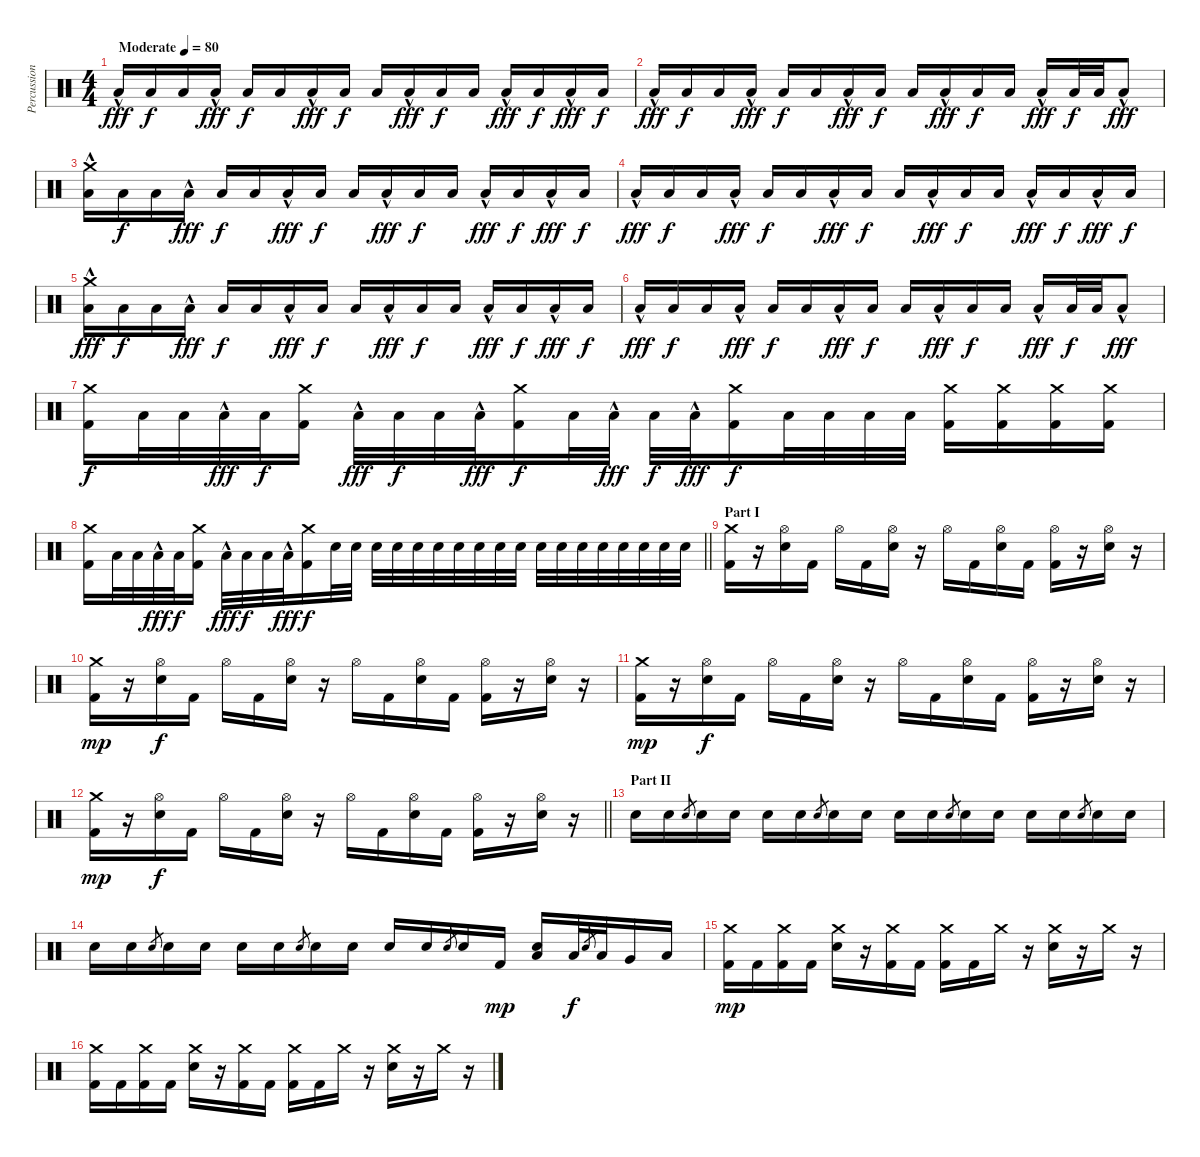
\track ("Percussion" "Percussion") {instrument percussion}
\staff {score}
\articulation defaults
\ts (4 4)
\tempo (80 "Moderate")
\clef neutral
\ks c "Low Floor Tom (hit)"{hac}.16{dy fff volume 13} "Low Floor Tom (hit)".16{dy f} "Low Floor Tom (hit)".16 "Low Floor Tom (hit)"{hac}.16{dy fff} "Low Floor Tom (hit)".16{dy f} "Low Floor Tom (hit)".16 "Low Floor Tom (hit)"{hac}.16{dy fff} "Low Floor Tom (hit)".16{dy f} "Low Floor Tom (hit)".16 "Low Floor Tom (hit)"{hac}.16{dy fff} "Low Floor Tom (hit)".16{dy f} "Low Floor Tom (hit)".16 "Low Floor Tom (hit)"{hac}.16{dy fff} "Low Floor Tom (hit)".16{dy f} "Low Floor Tom (hit)"{hac}.16{dy fff} "Low Floor Tom (hit)".16{dy f}
|
"Low Floor Tom (hit)"{hac}.16{dy fff} "Low Floor Tom (hit)".16{dy f} "Low Floor Tom (hit)".16 "Low Floor Tom (hit)"{hac}.16{dy fff} "Low Floor Tom (hit)".16{dy f} "Low Floor Tom (hit)".16 "Low Floor Tom (hit)"{hac}.16{dy fff} "Low Floor Tom (hit)".16{dy f} "Low Floor Tom (hit)".16 "Low Floor Tom (hit)"{hac}.16{dy fff} "Low Floor Tom (hit)".16{dy f} "Low Floor Tom (hit)".16 "Low Floor Tom (hit)"{hac}.16{dy fff} "Low Floor Tom (hit)".32{dy f} "Low Floor Tom (hit)".32 "Low Floor Tom (hit)"{hac}.8{dy fff} |
("Crash medium (hit)" "Low Floor Tom (hit)"{hac}).16 "Low Floor Tom (hit)".16{dy f} "Low Floor Tom (hit)".16 "Low Floor Tom (hit)"{hac}.16{dy fff} "Low Floor Tom (hit)".16{dy f} "Low Floor Tom (hit)".16 "Low Floor Tom (hit)"{hac}.16{dy fff} "Low Floor Tom (hit)".16{dy f} "Low Floor Tom (hit)".16 "Low Floor Tom (hit)"{hac}.16{dy fff} "Low Floor Tom (hit)".16{dy f} "Low Floor Tom (hit)".16 "Low Floor Tom (hit)"{hac}.16{dy fff} "Low Floor Tom (hit)".16{dy f} "Low Floor Tom (hit)"{hac}.16{dy fff} "Low Floor Tom (hit)".16{dy f} |
"Low Floor Tom (hit)"{hac}.16{dy fff} "Low Floor Tom (hit)".16{dy f} "Low Floor Tom (hit)".16 "Low Floor Tom (hit)"{hac}.16{dy fff} "Low Floor Tom (hit)".16{dy f} "Low Floor Tom (hit)".16 "Low Floor Tom (hit)"{hac}.16{dy fff} "Low Floor Tom (hit)".16{dy f} "Low Floor Tom (hit)".16 "Low Floor Tom (hit)"{hac}.16{dy fff} "Low Floor Tom (hit)".16{dy f} "Low Floor Tom (hit)".16 "Low Floor Tom (hit)"{hac}.16{dy fff} "Low Floor Tom (hit)".16{dy f} "Low Floor Tom (hit)"{hac}.16{dy fff} "Low Floor Tom (hit)".16{dy f} |
("Crash medium (hit)" "Low Floor Tom (hit)"{hac}).16{dy fff} "Low Floor Tom (hit)".16{dy f} "Low Floor Tom (hit)".16 "Low Floor Tom (hit)"{hac}.16{dy fff} "Low Floor Tom (hit)".16{dy f} "Low Floor Tom (hit)".16 "Low Floor Tom (hit)"{hac}.16{dy fff} "Low Floor Tom (hit)".16{dy f} "Low Floor Tom (hit)".16 "Low Floor Tom (hit)"{hac}.16{dy fff} "Low Floor Tom (hit)".16{dy f} "Low Floor Tom (hit)".16 "Low Floor Tom (hit)"{hac}.16{dy fff} "Low Floor Tom (hit)".16{dy f} "Low Floor Tom (hit)"{hac}.16{dy fff} "Low Floor Tom (hit)".16{dy f} |
"Low Floor Tom (hit)"{hac}.16{dy fff} "Low Floor Tom (hit)".16{dy f} "Low Floor Tom (hit)".16 "Low Floor Tom (hit)"{hac}.16{dy fff} "Low Floor Tom (hit)".16{dy f} "Low Floor Tom (hit)".16 "Low Floor Tom (hit)"{hac}.16{dy fff} "Low Floor Tom (hit)".16{dy f} "Low Floor Tom (hit)".16 "Low Floor Tom (hit)"{hac}.16{dy fff} "Low Floor Tom (hit)".16{dy f} "Low Floor Tom (hit)".16 "Low Floor Tom (hit)"{hac}.16{dy fff} "Low Floor Tom (hit)".32{dy f} "Low Floor Tom (hit)".32 "Low Floor Tom (hit)"{hac}.8{dy fff} |
("Crash medium (hit)" "Kick (hit) 2").16{dy f} "Low Floor Tom (hit)".32 "Low Floor Tom (hit)".32 "Low Floor Tom (hit)"{hac}.32{dy fff} "Low Floor Tom (hit)".32{dy f} ("Crash medium (hit)" "Kick (hit) 2").16 "Low Floor Tom (hit)"{hac}.32{dy fff} "Low Floor Tom (hit)".32{dy f} "Low Floor Tom (hit)".32 "Low Floor Tom (hit)"{hac}.32{dy fff} ("Crash medium (hit)" "Kick (hit) 2").16{dy f} "Low Floor Tom (hit)".32 "Low Floor Tom (hit)"{hac}.32{dy fff} "Low Floor Tom (hit)".32{dy f} "Low Floor Tom (hit)"{hac}.32{dy fff} ("Crash medium (hit)" "Kick (hit) 2").16{dy f} "Low Floor Tom (hit)".32 "Low Floor Tom (hit)".32 "Low Floor Tom (hit)".32 "Low Floor Tom (hit)".32 ("Crash medium (hit)" "Kick (hit) 2").16 ("Crash medium (hit)" "Kick (hit) 2").16 ("Crash medium (hit)" "Kick (hit) 2").16 ("Crash medium (hit)" "Kick (hit) 2").16 |
\barLineRight lightlight
("Crash medium (hit)" "Kick (hit) 2").16 "Low Floor Tom (hit)".32 "Low Floor Tom (hit)".32 "Low Floor Tom (hit)"{hac}.32{dy fff} "Low Floor Tom (hit)".32{dy f} ("Crash medium (hit)" "Kick (hit) 2").16 "Low Floor Tom (hit)"{hac}.32{dy fff} "Low Floor Tom (hit)".32{dy f} "Low Floor Tom (hit)".32 "Low Floor Tom (hit)"{hac}.32{dy fff} ("Crash medium (hit)" "Kick (hit) 2").16{dy f} "Electric Snare (hit)".32 "Electric Snare (hit)".32 "Electric Snare (hit)".32 "Electric Snare (hit)".32 "Electric Snare (hit)".32 "Electric Snare (hit)".32 "Electric Snare (hit)".32 "Electric Snare (hit)".32 "Electric Snare (hit)".32 "Electric Snare (hit)".32 "Electric Snare (hit)".32 "Electric Snare (hit)".32 "Electric Snare (hit)".32 "Electric Snare (hit)".32 "Electric Snare (hit)".32 "Electric Snare (hit)".32 "Electric Snare (hit)".32 "Electric Snare (hit)".32 |
\section ("" "Part I")
("Crash medium (hit)" "Kick (hit) 2").16 r.16 ("Hi-Hat (open)" "Electric Snare (hit)").16 "Kick (hit) 2".16 "Hi-Hat (open)".16 "Kick (hit) 2".16 ("Hi-Hat (open)" "Electric Snare (hit)").16 r.16 "Hi-Hat (open)".16 "Kick (hit) 2".16 ("Hi-Hat (open)" "Electric Snare (hit)").16 "Kick (hit) 2".16 ("Hi-Hat (open)" "Kick (hit) 2").16 r.16 ("Hi-Hat (open)" "Electric Snare (hit)").16 r.16 |
("Crash medium (hit)" "Kick (hit) 2").16{dy mp} r.16 ("Hi-Hat (open)" "Electric Snare (hit)").16{dy f} "Kick (hit) 2".16 "Hi-Hat (open)".16 "Kick (hit) 2".16 ("Hi-Hat (open)" "Electric Snare (hit)").16 r.16 "Hi-Hat (open)".16 "Kick (hit) 2".16 ("Hi-Hat (open)" "Electric Snare (hit)").16 "Kick (hit) 2".16 ("Hi-Hat (open)" "Kick (hit) 2").16 r.16 ("Hi-Hat (open)" "Electric Snare (hit)").16 r.16 |
("Crash medium (hit)" "Kick (hit) 2").16{dy mp} r.16 ("Hi-Hat (open)" "Electric Snare (hit)").16{dy f} "Kick (hit) 2".16 "Hi-Hat (open)".16 "Kick (hit) 2".16 ("Hi-Hat (open)" "Electric Snare (hit)").16 r.16 "Hi-Hat (open)".16 "Kick (hit) 2".16 ("Hi-Hat (open)" "Electric Snare (hit)").16 "Kick (hit) 2".16 ("Hi-Hat (open)" "Kick (hit) 2").16 r.16 ("Hi-Hat (open)" "Electric Snare (hit)").16 r.16 |
\barLineRight lightlight
("Crash medium (hit)" "Kick (hit) 2").16{dy mp} r.16 ("Hi-Hat (open)" "Electric Snare (hit)").16{dy f} "Kick (hit) 2".16 "Hi-Hat (open)".16 "Kick (hit) 2".16 ("Hi-Hat (open)" "Electric Snare (hit)").16 r.16 "Hi-Hat (open)".16 "Kick (hit) 2".16 ("Hi-Hat (open)" "Electric Snare (hit)").16 "Kick (hit) 2".16 ("Hi-Hat (open)" "Kick (hit) 2").16 r.16 ("Hi-Hat (open)" "Electric Snare (hit)").16 r.16 |
\section ("" "Part II")
"Electric Snare (hit)".16 "Electric Snare (hit)".16 "Electric Snare (hit)".8{gr} "Electric Snare (hit)".16 "Electric Snare (hit)".16 "Electric Snare (hit)".16 "Electric Snare (hit)".16 "Electric Snare (hit)".8{gr} "Electric Snare (hit)".16 "Electric Snare (hit)".16 "Electric Snare (hit)".16 "Electric Snare (hit)".16 "Electric Snare (hit)".8{gr} "Electric Snare (hit)".16 "Electric Snare (hit)".16 "Electric Snare (hit)".16 "Electric Snare (hit)".16 "Electric Snare (hit)".8{gr} "Electric Snare (hit)".16 "Electric Snare (hit)".16 |
"Electric Snare (hit)".16 "Electric Snare (hit)".16 "Electric Snare (hit)".8{gr} "Electric Snare (hit)".16 "Electric Snare (hit)".16 "Electric Snare (hit)".16 "Electric Snare (hit)".16 "Electric Snare (hit)".8{gr} "Electric Snare (hit)".16 "Electric Snare (hit)".16 "Electric Snare (hit)".16 "Electric Snare (hit)".16 "Electric Snare (hit)".8{gr} "Electric Snare (hit)".16 "Kick (hit) 2".16{dy mp} ("Electric Snare (hit)" "Low Tom (hit)").16 "Low Tom (hit)".32{dy f} "Electric Snare (hit)".8{gr} "Low Tom (hit)".32 "Very Low Tom (hit)".16 "Low Floor Tom (hit)".16 |
("Crash medium (hit)" "Kick (hit) 2").16{dy mp} "Kick (hit) 2".16 ("Crash medium (hit)" "Kick (hit) 2").16 "Kick (hit) 2".16 ("Crash medium (hit)" "Electric Snare (hit)").16 r.16 ("Crash medium (hit)" "Kick (hit) 2").16 "Kick (hit) 2".16 ("Crash medium (hit)" "Kick (hit) 2").16 "Kick (hit) 2".16 "Crash medium (hit)".16 r.16 ("Crash medium (hit)" "Electric Snare (hit)").16 r.16 "Crash medium (hit)".16 r.16 |
("Crash medium (hit)" "Kick (hit) 2").16 "Kick (hit) 2".16 ("Crash medium (hit)" "Kick (hit) 2").16 "Kick (hit) 2".16 ("Crash medium (hit)" "Electric Snare (hit)").16 r.16 ("Crash medium (hit)" "Kick (hit) 2").16 "Kick (hit) 2".16 ("Crash medium (hit)" "Kick (hit) 2").16 "Kick (hit) 2".16 "Crash medium (hit)".16 r.16 ("Crash medium (hit)" "Electric Snare (hit)").16 r.16 "Crash medium (hit)".16 r.16
